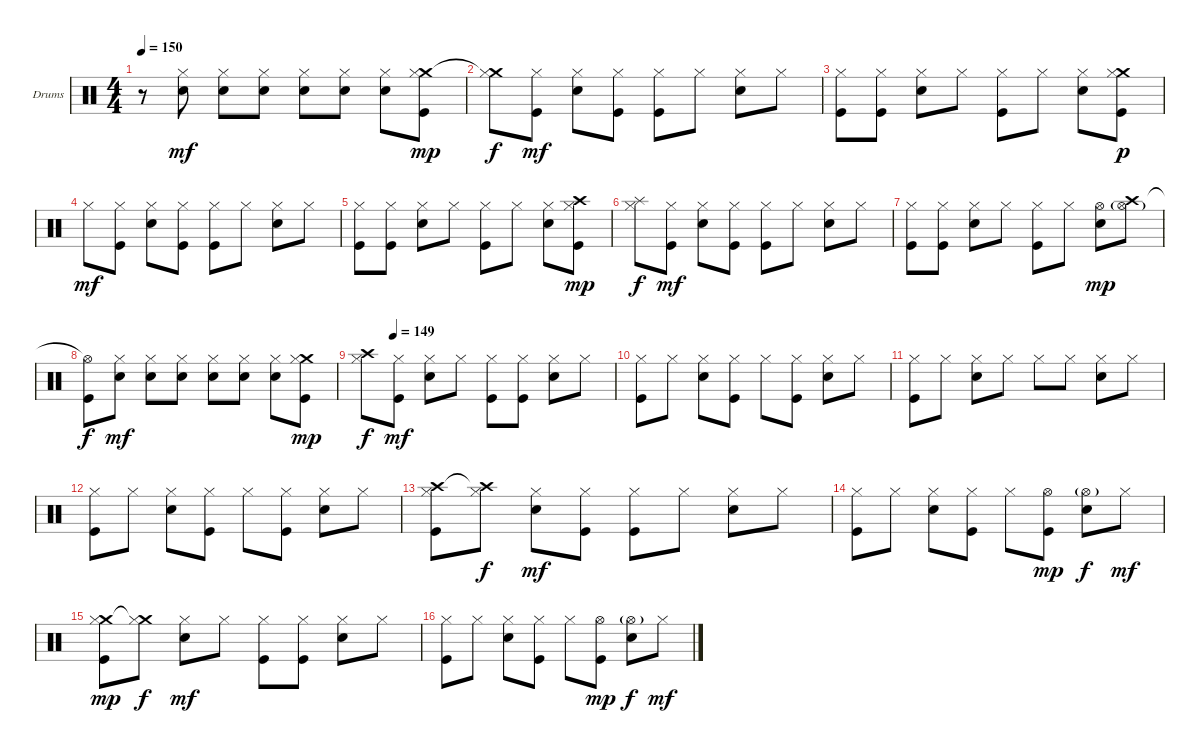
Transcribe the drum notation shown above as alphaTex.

\bracketExtendMode groupsimilarinstruments
\firstSystemTrackNameOrientation horizontal
\otherSystemsTrackNameOrientation horizontal
\track ("Drumkit" "Drums") {instrument percussion}
\staff {score}
\articulation defaults
\ts (4 4)
\tempo 150
\clef neutral
\ks c
r.8{dy mf} ("Hi-Hat (closed)" "Snare (hit) 2").8 ("Hi-Hat (closed)" "Snare (hit) 2").8 ("Hi-Hat (closed)" "Snare (hit) 2").8 ("Hi-Hat (closed)" "Snare (hit) 2").8 ("Hi-Hat (closed)" "Snare (hit) 2").8 ("Hi-Hat (closed)" "Snare (hit) 2").8 ("Crash medium (hit)" "Hi-Hat (closed)" "Kick (hit)").8{dy mp} |
("Crash medium (hit)"{t} "Hi-Hat (closed)").8{dy f} ("Hi-Hat (closed)" "Kick (hit)").8{dy mf} ("Hi-Hat (closed)" "Snare (hit) 2").8 ("Hi-Hat (closed)" "Kick (hit)").8 ("Hi-Hat (closed)" "Kick (hit)").8 "Hi-Hat (closed)".8 ("Hi-Hat (closed)" "Snare (hit) 2").8 "Hi-Hat (closed)".8 |
("Hi-Hat (closed)" "Kick (hit)").8 ("Hi-Hat (closed)" "Kick (hit)").8 ("Hi-Hat (closed)" "Snare (hit) 2").8 "Hi-Hat (closed)".8 ("Hi-Hat (closed)" "Kick (hit)").8 "Hi-Hat (closed)".8 ("Hi-Hat (closed)" "Snare (hit) 2").8 ("Crash medium (hit)" "Hi-Hat (closed)" "Kick (hit)").8{dy p} |
"Hi-Hat (closed)".8{dy mf} ("Hi-Hat (closed)" "Kick (hit)").8 ("Hi-Hat (closed)" "Snare (hit) 2").8 ("Hi-Hat (closed)" "Kick (hit)").8 ("Hi-Hat (closed)" "Kick (hit)").8 "Hi-Hat (closed)".8 ("Hi-Hat (closed)" "Snare (hit) 2").8 "Hi-Hat (closed)".8 |
("Hi-Hat (closed)" "Kick (hit)").8 ("Hi-Hat (closed)" "Kick (hit)").8 ("Hi-Hat (closed)" "Snare (hit) 2").8 "Hi-Hat (closed)".8 ("Hi-Hat (closed)" "Kick (hit)").8 "Hi-Hat (closed)".8 ("Hi-Hat (closed)" "Snare (hit) 2").8 ("Crash high (hit)" "Hi-Hat (closed)" "Kick (hit)").8{dy mp} |
("Splash (hit)" "Hi-Hat (closed)").8{dy f} ("Hi-Hat (closed)" "Kick (hit)").8{dy mf} ("Hi-Hat (closed)" "Snare (hit) 2").8 ("Hi-Hat (closed)" "Kick (hit)").8 ("Hi-Hat (closed)" "Kick (hit)").8 "Hi-Hat (closed)".8 ("Hi-Hat (closed)" "Snare (hit) 2").8 "Hi-Hat (closed)".8 |
("Hi-Hat (closed)" "Kick (hit)").8 ("Hi-Hat (closed)" "Kick (hit)").8 ("Hi-Hat (closed)" "Snare (hit) 2").8 "Hi-Hat (closed)".8 ("Hi-Hat (closed)" "Kick (hit)").8 "Hi-Hat (closed)".8 ("Hi-Hat (open)" "Snare (hit) 2").8{dy mp} ("Crash high (hit)" "Hi-Hat (open)"{g}).8 |
("Hi-Hat (open)"{t} "Kick (hit)").8{dy f} ("Hi-Hat (closed)" "Snare (hit) 2").8{dy mf} ("Hi-Hat (closed)" "Snare (hit) 2").8 ("Hi-Hat (closed)" "Snare (hit) 2").8 ("Hi-Hat (closed)" "Snare (hit) 2").8 ("Hi-Hat (closed)" "Snare (hit) 2").8 ("Hi-Hat (closed)" "Snare (hit) 2").8 ("Crash medium (hit)" "Hi-Hat (closed)" "Kick (hit)").8{dy mp} |
\tempo (149 0.125)
("Crash high (hit)" "Hi-Hat (closed)").8{dy f} ("Hi-Hat (closed)" "Kick (hit)").8{dy mf} ("Hi-Hat (closed)" "Snare (hit) 2").8 "Hi-Hat (closed)".8 ("Hi-Hat (closed)" "Kick (hit)").8 ("Hi-Hat (closed)" "Kick (hit)").8 ("Hi-Hat (closed)" "Snare (hit) 2").8 "Hi-Hat (closed)".8 |
("Hi-Hat (closed)" "Kick (hit)").8 "Hi-Hat (closed)".8 ("Hi-Hat (closed)" "Snare (hit) 2").8 ("Hi-Hat (closed)" "Kick (hit)").8 "Hi-Hat (closed)".8 ("Hi-Hat (closed)" "Kick (hit)").8 ("Hi-Hat (closed)" "Snare (hit) 2").8 "Hi-Hat (closed)".8 |
("Hi-Hat (closed)" "Kick (hit)").8 "Hi-Hat (closed)".8 ("Hi-Hat (closed)" "Snare (hit) 2").8 "Hi-Hat (closed)".8 "Hi-Hat (closed)".8 "Hi-Hat (closed)".8 ("Hi-Hat (closed)" "Snare (hit) 2").8 "Hi-Hat (closed)".8 |
("Hi-Hat (closed)" "Kick (hit)").8 "Hi-Hat (closed)".8 ("Hi-Hat (closed)" "Snare (hit) 2").8 ("Hi-Hat (closed)" "Kick (hit)").8 "Hi-Hat (closed)".8 ("Hi-Hat (closed)" "Kick (hit)").8 ("Hi-Hat (closed)" "Snare (hit) 2").8 "Hi-Hat (closed)".8 |
("Crash high (hit)" "Hi-Hat (closed)" "Kick (hit)").8 ("Crash high (hit)"{t} "Hi-Hat (closed)").8{dy f} ("Hi-Hat (closed)" "Snare (hit) 2").8{dy mf} ("Hi-Hat (closed)" "Kick (hit)").8 ("Hi-Hat (closed)" "Kick (hit)").8 "Hi-Hat (closed)".8 ("Hi-Hat (closed)" "Snare (hit) 2").8 "Hi-Hat (closed)".8 |
("Hi-Hat (closed)" "Kick (hit)").8 "Hi-Hat (closed)".8 ("Hi-Hat (closed)" "Snare (hit) 2").8 ("Hi-Hat (closed)" "Kick (hit)").8 "Hi-Hat (closed)".8 ("Hi-Hat (open)" "Kick (hit)").8{dy mp} ("Hi-Hat (open)"{g} "Snare (hit) 2").8{dy f} "Hi-Hat (closed)".8{dy mf} |
("Crash medium (hit)" "Hi-Hat (closed)" "Kick (hit)").8{dy mp} ("Crash medium (hit)"{t} "Hi-Hat (closed)").8{dy f} ("Hi-Hat (closed)" "Snare (hit) 2").8{dy mf} "Hi-Hat (closed)".8 ("Hi-Hat (closed)" "Kick (hit)").8 ("Hi-Hat (closed)" "Kick (hit)").8 ("Hi-Hat (closed)" "Snare (hit) 2").8 "Hi-Hat (closed)".8 |
("Hi-Hat (closed)" "Kick (hit)").8 "Hi-Hat (closed)".8 ("Hi-Hat (closed)" "Snare (hit) 2").8 ("Hi-Hat (closed)" "Kick (hit)").8 "Hi-Hat (closed)".8 ("Hi-Hat (open)" "Kick (hit)").8{dy mp} ("Hi-Hat (open)"{g} "Snare (hit) 2").8{dy f} "Hi-Hat (closed)".8{dy mf}
